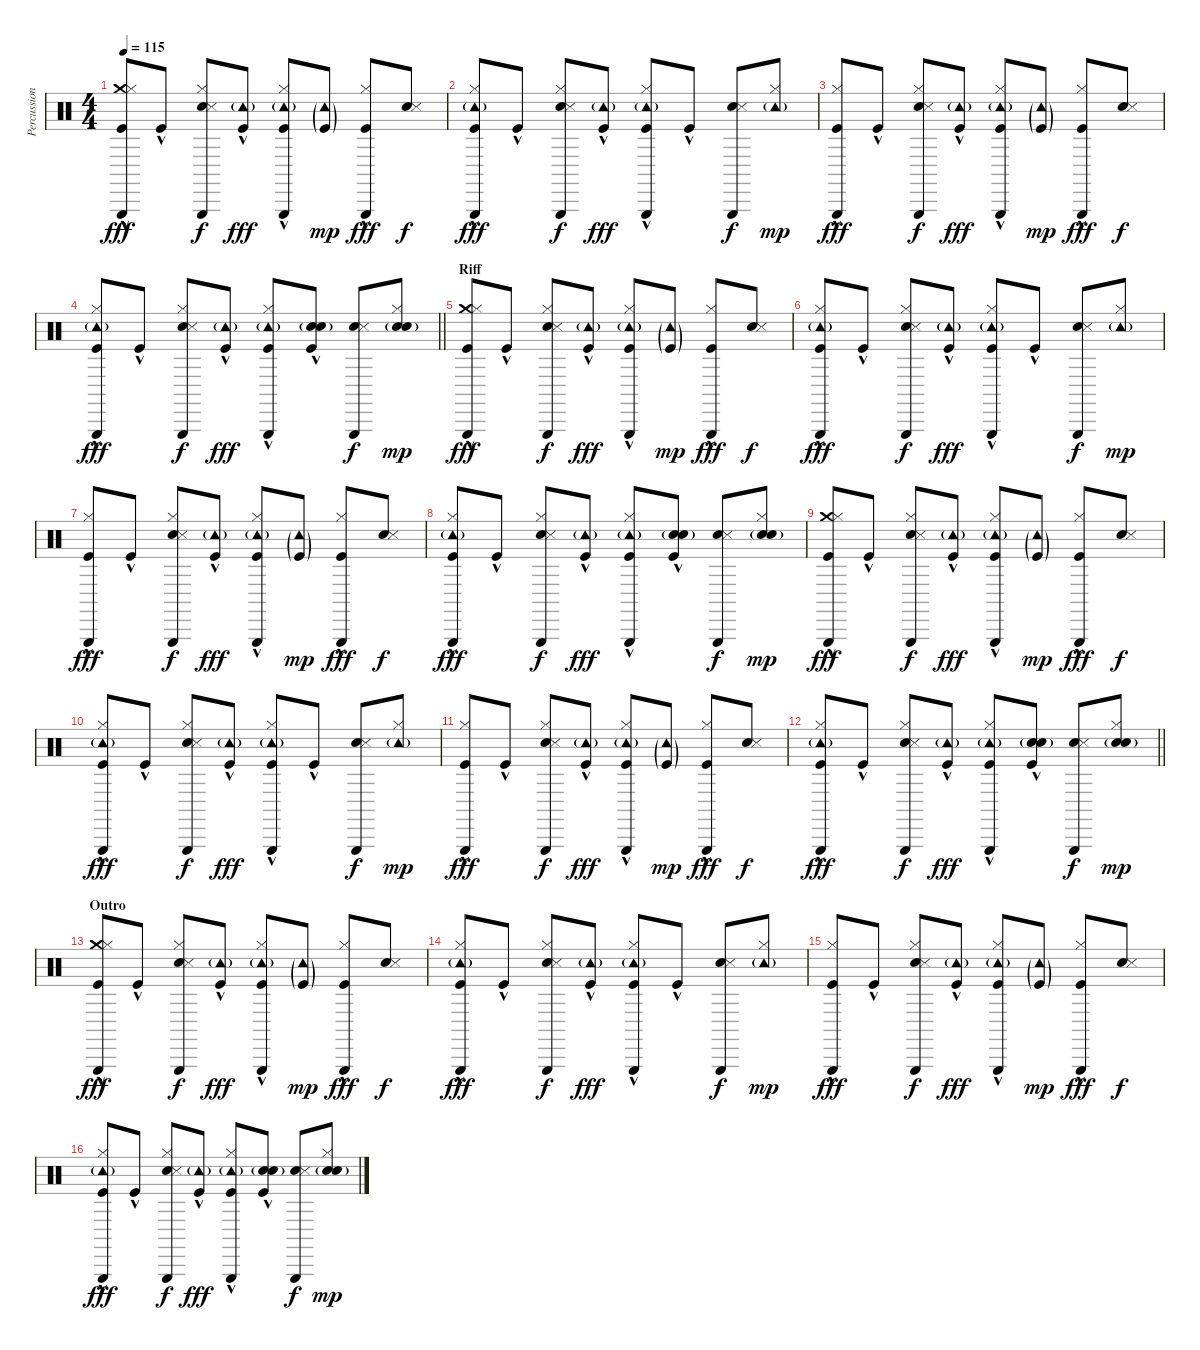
\track ("Percussion" "Percussion") {instrument percussion}
\staff {score}
\articulation defaults
\ts (4 4)
\tempo 115
\clef neutral
\ks c
("Triangle (hit)" "Crash medium (hit)" "Hi-Hat (closed)" "Kick (hit)"{hac}).8{dy fff} "Kick (hit)"{hac}.8 ("Hand Clap (hit)" "Snare (side stick) 3" "Hi-Hat (closed)" "Triangle (hit)").8{dy f} ("Tambourine (hit)"{g} "Kick (hit)"{hac}).8{dy fff} ("Triangle (hit)" "Hi-Hat (closed)" "Tambourine (hit)"{g} "Kick (hit)"{hac}).8 ("Tambourine (hit)"{g} "Kick (hit)"{g}).8{dy mp} ("Triangle (hit)" "Hi-Hat (closed)" "Kick (hit)"{hac}).8{dy fff} ("Hand Clap (hit)" "Snare (side stick) 3").8{dy f} |
("Triangle (hit)" "Hi-Hat (closed)" "Tambourine (hit)"{g} "Kick (hit)"{hac}).8{dy fff} "Kick (hit)"{hac}.8 ("Hand Clap (hit)" "Snare (side stick) 3" "Hi-Hat (closed)" "Triangle (hit)").8{dy f} ("Tambourine (hit)"{g} "Kick (hit)"{hac}).8{dy fff} ("Triangle (hit)" "Hi-Hat (closed)" "Tambourine (hit)"{g} "Kick (hit)"{hac}).8 "Kick (hit)"{hac}.8 ("Hand Clap (hit)" "Snare (side stick) 3" "Triangle (hit)").8{dy f} ("Hi-Hat (closed)" "Tambourine (hit)"{g}).8{dy mp} |
("Triangle (hit)" "Hi-Hat (closed)" "Kick (hit)"{hac}).8{dy fff} "Kick (hit)"{hac}.8 ("Hand Clap (hit)" "Snare (side stick) 3" "Hi-Hat (closed)" "Triangle (hit)").8{dy f} ("Tambourine (hit)"{g} "Kick (hit)"{hac}).8{dy fff} ("Triangle (hit)" "Hi-Hat (closed)" "Tambourine (hit)"{g} "Kick (hit)"{hac}).8 ("Tambourine (hit)"{g} "Kick (hit)"{g}).8{dy mp} ("Triangle (hit)" "Hi-Hat (closed)" "Kick (hit)"{hac}).8{dy fff} ("Hand Clap (hit)" "Snare (side stick) 3").8{dy f} |
\barLineRight lightlight
("Triangle (hit)" "Hi-Hat (closed)" "Tambourine (hit)"{g} "Kick (hit)"{hac}).8{dy fff} "Kick (hit)"{hac}.8 ("Hand Clap (hit)" "Snare (side stick) 3" "Hi-Hat (closed)" "Triangle (hit)").8{dy f} ("Tambourine (hit)"{g} "Kick (hit)"{hac}).8{dy fff} ("Triangle (hit)" "Hi-Hat (closed)" "Tambourine (hit)"{g} "Kick (hit)"{hac}).8 ("Snare (hit) 2" "Electric Snare (hit)"{g} "Kick (hit)"{hac}).8 ("Hand Clap (hit)" "Snare (side stick) 3" "Triangle (hit)").8{dy f} ("Hi-Hat (closed)" "Snare (hit) 2" "Electric Snare (hit)"{g}).8{dy mp} |
\section ("" "Riff")
("Triangle (hit)" "Crash medium (hit)" "Hi-Hat (closed)" "Kick (hit)"{hac}).8{dy fff} "Kick (hit)"{hac}.8 ("Hand Clap (hit)" "Snare (side stick) 3" "Hi-Hat (closed)" "Triangle (hit)").8{dy f} ("Tambourine (hit)"{g} "Kick (hit)"{hac}).8{dy fff} ("Triangle (hit)" "Hi-Hat (closed)" "Tambourine (hit)"{g} "Kick (hit)"{hac}).8 ("Tambourine (hit)"{g} "Kick (hit)"{g}).8{dy mp} ("Triangle (hit)" "Hi-Hat (closed)" "Kick (hit)"{hac}).8{dy fff} ("Hand Clap (hit)" "Snare (side stick) 3").8{dy f} |
("Triangle (hit)" "Hi-Hat (closed)" "Tambourine (hit)"{g} "Kick (hit)"{hac}).8{dy fff} "Kick (hit)"{hac}.8 ("Hand Clap (hit)" "Snare (side stick) 3" "Hi-Hat (closed)" "Triangle (hit)").8{dy f} ("Tambourine (hit)"{g} "Kick (hit)"{hac}).8{dy fff} ("Triangle (hit)" "Hi-Hat (closed)" "Tambourine (hit)"{g} "Kick (hit)"{hac}).8 "Kick (hit)"{hac}.8 ("Hand Clap (hit)" "Snare (side stick) 3" "Triangle (hit)").8{dy f} ("Hi-Hat (closed)" "Tambourine (hit)"{g}).8{dy mp} |
("Triangle (hit)" "Hi-Hat (closed)" "Kick (hit)"{hac}).8{dy fff} "Kick (hit)"{hac}.8 ("Hand Clap (hit)" "Snare (side stick) 3" "Hi-Hat (closed)" "Triangle (hit)").8{dy f} ("Tambourine (hit)"{g} "Kick (hit)"{hac}).8{dy fff} ("Triangle (hit)" "Hi-Hat (closed)" "Tambourine (hit)"{g} "Kick (hit)"{hac}).8 ("Tambourine (hit)"{g} "Kick (hit)"{g}).8{dy mp} ("Triangle (hit)" "Hi-Hat (closed)" "Kick (hit)"{hac}).8{dy fff} ("Hand Clap (hit)" "Snare (side stick) 3").8{dy f} |
("Triangle (hit)" "Hi-Hat (closed)" "Tambourine (hit)"{g} "Kick (hit)"{hac}).8{dy fff} "Kick (hit)"{hac}.8 ("Hand Clap (hit)" "Snare (side stick) 3" "Hi-Hat (closed)" "Triangle (hit)").8{dy f} ("Tambourine (hit)"{g} "Kick (hit)"{hac}).8{dy fff} ("Triangle (hit)" "Hi-Hat (closed)" "Tambourine (hit)"{g} "Kick (hit)"{hac}).8 ("Snare (hit) 2" "Electric Snare (hit)"{g} "Kick (hit)"{hac}).8 ("Hand Clap (hit)" "Snare (side stick) 3" "Triangle (hit)").8{dy f} ("Hi-Hat (closed)" "Snare (hit) 2" "Electric Snare (hit)"{g}).8{dy mp} |
("Triangle (hit)" "Crash medium (hit)" "Hi-Hat (closed)" "Kick (hit)"{hac}).8{dy fff} "Kick (hit)"{hac}.8 ("Hand Clap (hit)" "Snare (side stick) 3" "Hi-Hat (closed)" "Triangle (hit)").8{dy f} ("Tambourine (hit)"{g} "Kick (hit)"{hac}).8{dy fff} ("Triangle (hit)" "Hi-Hat (closed)" "Tambourine (hit)"{g} "Kick (hit)"{hac}).8 ("Tambourine (hit)"{g} "Kick (hit)"{g}).8{dy mp} ("Triangle (hit)" "Hi-Hat (closed)" "Kick (hit)"{hac}).8{dy fff} ("Hand Clap (hit)" "Snare (side stick) 3").8{dy f} |
("Triangle (hit)" "Hi-Hat (closed)" "Tambourine (hit)"{g} "Kick (hit)"{hac}).8{dy fff} "Kick (hit)"{hac}.8 ("Hand Clap (hit)" "Snare (side stick) 3" "Hi-Hat (closed)" "Triangle (hit)").8{dy f} ("Tambourine (hit)"{g} "Kick (hit)"{hac}).8{dy fff} ("Triangle (hit)" "Hi-Hat (closed)" "Tambourine (hit)"{g} "Kick (hit)"{hac}).8 "Kick (hit)"{hac}.8 ("Hand Clap (hit)" "Snare (side stick) 3" "Triangle (hit)").8{dy f} ("Hi-Hat (closed)" "Tambourine (hit)"{g}).8{dy mp} |
("Triangle (hit)" "Hi-Hat (closed)" "Kick (hit)"{hac}).8{dy fff} "Kick (hit)"{hac}.8 ("Hand Clap (hit)" "Snare (side stick) 3" "Hi-Hat (closed)" "Triangle (hit)").8{dy f} ("Tambourine (hit)"{g} "Kick (hit)"{hac}).8{dy fff} ("Triangle (hit)" "Hi-Hat (closed)" "Tambourine (hit)"{g} "Kick (hit)"{hac}).8 ("Tambourine (hit)"{g} "Kick (hit)"{g}).8{dy mp} ("Triangle (hit)" "Hi-Hat (closed)" "Kick (hit)"{hac}).8{dy fff} ("Hand Clap (hit)" "Snare (side stick) 3").8{dy f} |
\barLineRight lightlight
("Triangle (hit)" "Hi-Hat (closed)" "Tambourine (hit)"{g} "Kick (hit)"{hac}).8{dy fff} "Kick (hit)"{hac}.8 ("Hand Clap (hit)" "Snare (side stick) 3" "Hi-Hat (closed)" "Triangle (hit)").8{dy f} ("Tambourine (hit)"{g} "Kick (hit)"{hac}).8{dy fff} ("Triangle (hit)" "Hi-Hat (closed)" "Tambourine (hit)"{g} "Kick (hit)"{hac}).8 ("Snare (hit) 2" "Electric Snare (hit)"{g} "Kick (hit)"{hac}).8 ("Hand Clap (hit)" "Snare (side stick) 3" "Triangle (hit)").8{dy f} ("Hi-Hat (closed)" "Snare (hit) 2" "Electric Snare (hit)"{g}).8{dy mp} |
\section ("" "Outro")
("Triangle (hit)" "Crash medium (hit)" "Hi-Hat (closed)" "Kick (hit)"{hac}).8{dy fff} "Kick (hit)"{hac}.8 ("Hand Clap (hit)" "Snare (side stick) 3" "Hi-Hat (closed)" "Triangle (hit)").8{dy f} ("Tambourine (hit)"{g} "Kick (hit)"{hac}).8{dy fff} ("Triangle (hit)" "Hi-Hat (closed)" "Tambourine (hit)"{g} "Kick (hit)"{hac}).8 ("Tambourine (hit)"{g} "Kick (hit)"{g}).8{dy mp} ("Triangle (hit)" "Hi-Hat (closed)" "Kick (hit)"{hac}).8{dy fff} ("Hand Clap (hit)" "Snare (side stick) 3").8{dy f} |
("Triangle (hit)" "Hi-Hat (closed)" "Tambourine (hit)"{g} "Kick (hit)"{hac}).8{dy fff} "Kick (hit)"{hac}.8 ("Hand Clap (hit)" "Snare (side stick) 3" "Hi-Hat (closed)" "Triangle (hit)").8{dy f} ("Tambourine (hit)"{g} "Kick (hit)"{hac}).8{dy fff} ("Triangle (hit)" "Hi-Hat (closed)" "Tambourine (hit)"{g} "Kick (hit)"{hac}).8 "Kick (hit)"{hac}.8 ("Hand Clap (hit)" "Snare (side stick) 3" "Triangle (hit)").8{dy f} ("Hi-Hat (closed)" "Tambourine (hit)"{g}).8{dy mp} |
("Triangle (hit)" "Hi-Hat (closed)" "Kick (hit)"{hac}).8{dy fff} "Kick (hit)"{hac}.8 ("Hand Clap (hit)" "Snare (side stick) 3" "Hi-Hat (closed)" "Triangle (hit)").8{dy f} ("Tambourine (hit)"{g} "Kick (hit)"{hac}).8{dy fff} ("Triangle (hit)" "Hi-Hat (closed)" "Tambourine (hit)"{g} "Kick (hit)"{hac}).8 ("Tambourine (hit)"{g} "Kick (hit)"{g}).8{dy mp} ("Triangle (hit)" "Hi-Hat (closed)" "Kick (hit)"{hac}).8{dy fff} ("Hand Clap (hit)" "Snare (side stick) 3").8{dy f} |
("Triangle (hit)" "Hi-Hat (closed)" "Tambourine (hit)"{g} "Kick (hit)"{hac}).8{dy fff} "Kick (hit)"{hac}.8 ("Hand Clap (hit)" "Snare (side stick) 3" "Hi-Hat (closed)" "Triangle (hit)").8{dy f} ("Tambourine (hit)"{g} "Kick (hit)"{hac}).8{dy fff} ("Triangle (hit)" "Hi-Hat (closed)" "Tambourine (hit)"{g} "Kick (hit)"{hac}).8 ("Snare (hit) 2" "Electric Snare (hit)"{g} "Kick (hit)"{hac}).8 ("Hand Clap (hit)" "Snare (side stick) 3" "Triangle (hit)").8{dy f} ("Hi-Hat (closed)" "Snare (hit) 2" "Electric Snare (hit)"{g}).8{dy mp}
